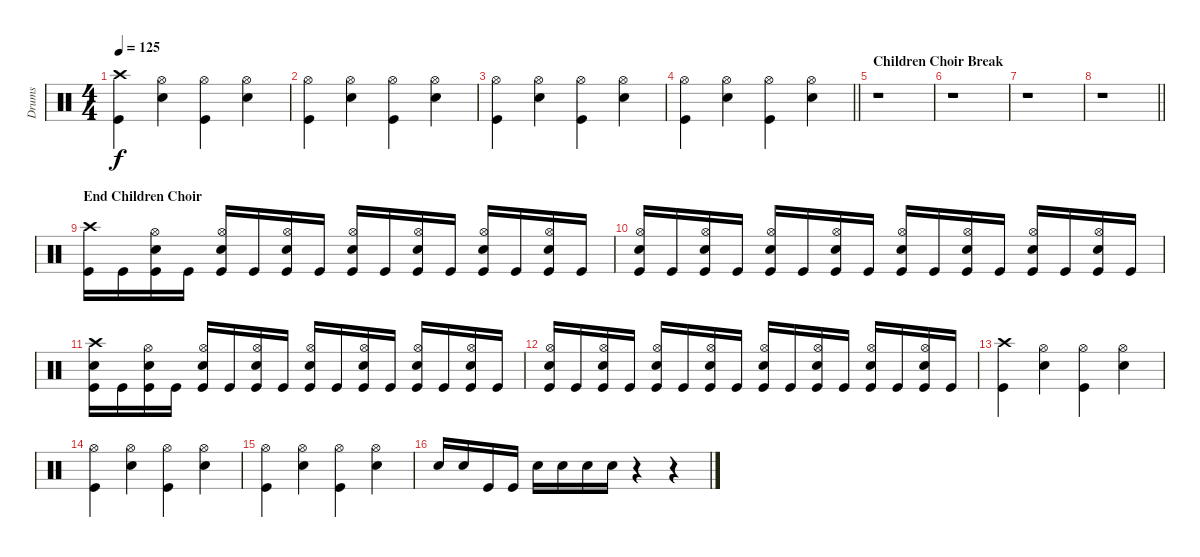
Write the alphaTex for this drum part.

\track ("Drums" "Drums") {instrument percussion}
\staff {score}
\articulation defaults
\ts (4 4)
\tempo 125
\clef neutral
\ks c
("Crash high (hit)" "Kick (hit)").4{dy f} ("Hi-Hat (open)" "Electric Snare (hit)").4 ("Hi-Hat (open)" "Kick (hit)").4 ("Hi-Hat (open)" "Electric Snare (hit)").4 |
("Hi-Hat (open)" "Kick (hit)").4 ("Hi-Hat (open)" "Electric Snare (hit)").4 ("Hi-Hat (open)" "Kick (hit)").4 ("Hi-Hat (open)" "Electric Snare (hit)").4 |
("Hi-Hat (open)" "Kick (hit)").4 ("Hi-Hat (open)" "Electric Snare (hit)").4 ("Hi-Hat (open)" "Kick (hit)").4 ("Hi-Hat (open)" "Electric Snare (hit)").4 |
\barLineRight lightlight
("Hi-Hat (open)" "Kick (hit)").4 ("Hi-Hat (open)" "Electric Snare (hit)").4 ("Hi-Hat (open)" "Kick (hit)").4 ("Hi-Hat (open)" "Electric Snare (hit)").4 |
\section ("" "Children Choir Break")
r.1 |
r.1 |
r.1 |
\barLineRight lightlight
r.1 |
\section ("" "End Children Choir")
("Crash high (hit)" "Kick (hit)").16 "Kick (hit)".16 ("Hi-Hat (open)" "Electric Snare (hit)" "Kick (hit)").16 "Kick (hit)".16 ("Hi-Hat (open)" "Electric Snare (hit)" "Kick (hit)").16 "Kick (hit)".16 ("Hi-Hat (open)" "Electric Snare (hit)" "Kick (hit)").16 "Kick (hit)".16 ("Hi-Hat (open)" "Electric Snare (hit)" "Kick (hit)").16 "Kick (hit)".16 ("Hi-Hat (open)" "Electric Snare (hit)" "Kick (hit)").16 "Kick (hit)".16 ("Hi-Hat (open)" "Electric Snare (hit)" "Kick (hit)").16 "Kick (hit)".16 ("Hi-Hat (open)" "Electric Snare (hit)" "Kick (hit)").16 "Kick (hit)".16 |
("Hi-Hat (open)" "Electric Snare (hit)" "Kick (hit)").16 "Kick (hit)".16 ("Hi-Hat (open)" "Electric Snare (hit)" "Kick (hit)").16 "Kick (hit)".16 ("Hi-Hat (open)" "Electric Snare (hit)" "Kick (hit)").16 "Kick (hit)".16 ("Hi-Hat (open)" "Electric Snare (hit)" "Kick (hit)").16 "Kick (hit)".16 ("Hi-Hat (open)" "Electric Snare (hit)" "Kick (hit)").16 "Kick (hit)".16 ("Hi-Hat (open)" "Electric Snare (hit)" "Kick (hit)").16 "Kick (hit)".16 ("Hi-Hat (open)" "Electric Snare (hit)" "Kick (hit)").16 "Kick (hit)".16 ("Hi-Hat (open)" "Electric Snare (hit)" "Kick (hit)").16 "Kick (hit)".16 |
("Crash high (hit)" "Electric Snare (hit)" "Kick (hit)").16 "Kick (hit)".16 ("Hi-Hat (open)" "Electric Snare (hit)" "Kick (hit)").16 "Kick (hit)".16 ("Hi-Hat (open)" "Electric Snare (hit)" "Kick (hit)").16 "Kick (hit)".16 ("Hi-Hat (open)" "Electric Snare (hit)" "Kick (hit)").16 "Kick (hit)".16 ("Hi-Hat (open)" "Electric Snare (hit)" "Kick (hit)").16 "Kick (hit)".16 ("Hi-Hat (open)" "Electric Snare (hit)" "Kick (hit)").16 "Kick (hit)".16 ("Hi-Hat (open)" "Electric Snare (hit)" "Kick (hit)").16 "Kick (hit)".16 ("Hi-Hat (open)" "Electric Snare (hit)" "Kick (hit)").16 "Kick (hit)".16 |
("Hi-Hat (open)" "Electric Snare (hit)" "Kick (hit)").16 "Kick (hit)".16 ("Hi-Hat (open)" "Electric Snare (hit)" "Kick (hit)").16 "Kick (hit)".16 ("Hi-Hat (open)" "Electric Snare (hit)" "Kick (hit)").16 "Kick (hit)".16 ("Hi-Hat (open)" "Electric Snare (hit)" "Kick (hit)").16 "Kick (hit)".16 ("Hi-Hat (open)" "Electric Snare (hit)" "Kick (hit)").16 "Kick (hit)".16 ("Hi-Hat (open)" "Electric Snare (hit)" "Kick (hit)").16 "Kick (hit)".16 ("Hi-Hat (open)" "Electric Snare (hit)" "Kick (hit)").16 "Kick (hit)".16 ("Hi-Hat (open)" "Electric Snare (hit)" "Kick (hit)").16 "Kick (hit)".16 |
("Crash high (hit)" "Kick (hit)").4 ("Hi-Hat (open)" "Electric Snare (hit)").4 ("Hi-Hat (open)" "Kick (hit)").4 ("Hi-Hat (open)" "Electric Snare (hit)").4 |
("Hi-Hat (open)" "Kick (hit)").4 ("Hi-Hat (open)" "Electric Snare (hit)").4 ("Hi-Hat (open)" "Kick (hit)").4 ("Hi-Hat (open)" "Electric Snare (hit)").4 |
("Hi-Hat (open)" "Kick (hit)").4 ("Hi-Hat (open)" "Electric Snare (hit)").4 ("Hi-Hat (open)" "Kick (hit)").4 ("Hi-Hat (open)" "Electric Snare (hit)").4 |
"Electric Snare (hit)".16 "Electric Snare (hit)".16 "Kick (hit)".16 "Kick (hit)".16 "Electric Snare (hit)".16 "Electric Snare (hit)".16 "Electric Snare (hit)".16 "Electric Snare (hit)".16 r.4 r.4
